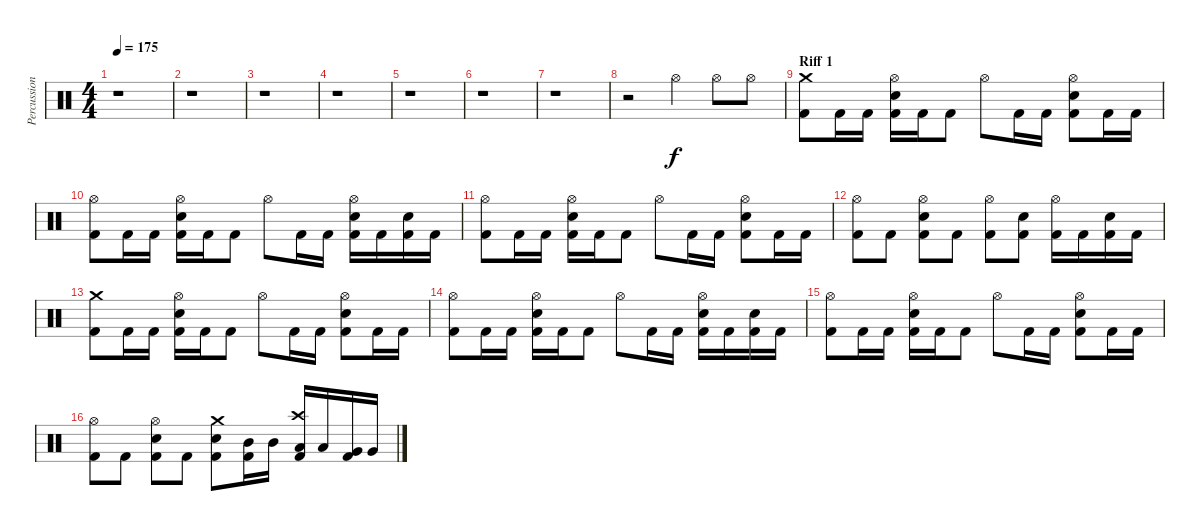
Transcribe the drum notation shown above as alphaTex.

\track ("Percussion" "Percussion") {instrument percussion}
\staff {score}
\articulation defaults
\ts (4 4)
\tempo 175
\clef neutral
\ks c
r.1{dy f} |
r.1 |
r.1 |
r.1 |
r.1 |
r.1 |
r.1 |
r.2 "Hi-Hat (open)".4 "Hi-Hat (open)".8 "Hi-Hat (open)".8 |
\section ("" "Riff 1")
("Crash medium (hit)" "Kick (hit) 2").8 "Kick (hit) 2".16 "Kick (hit) 2".16 ("Kick (hit) 2" "Hi-Hat (open)" "Snare (hit) 2").16 "Kick (hit) 2".16 "Kick (hit) 2".8 "Hi-Hat (open)".8 "Kick (hit) 2".16 "Kick (hit) 2".16 ("Kick (hit) 2" "Hi-Hat (open)" "Snare (hit) 2").8 "Kick (hit) 2".16 "Kick (hit) 2".16 |
("Hi-Hat (open)" "Kick (hit) 2").8 "Kick (hit) 2".16 "Kick (hit) 2".16 ("Kick (hit) 2" "Hi-Hat (open)" "Snare (hit) 2").16 "Kick (hit) 2".16 "Kick (hit) 2".8 "Hi-Hat (open)".8 "Kick (hit) 2".16 "Kick (hit) 2".16 ("Kick (hit) 2" "Hi-Hat (open)" "Snare (hit) 2").16 "Kick (hit) 2".16 ("Kick (hit) 2" "Snare (hit) 2").16 "Kick (hit) 2".16 |
("Hi-Hat (open)" "Kick (hit) 2").8 "Kick (hit) 2".16 "Kick (hit) 2".16 ("Kick (hit) 2" "Hi-Hat (open)" "Snare (hit) 2").16 "Kick (hit) 2".16 "Kick (hit) 2".8 "Hi-Hat (open)".8 "Kick (hit) 2".16 "Kick (hit) 2".16 ("Kick (hit) 2" "Hi-Hat (open)" "Snare (hit) 2").8 "Kick (hit) 2".16 "Kick (hit) 2".16 |
("Hi-Hat (open)" "Kick (hit) 2").8 "Kick (hit) 2".8 ("Kick (hit) 2" "Hi-Hat (open)" "Snare (hit) 2").8 "Kick (hit) 2".8 ("Hi-Hat (open)" "Kick (hit) 2").8 ("Kick (hit) 2" "Snare (hit) 2").8 ("Hi-Hat (open)" "Kick (hit) 2").16 "Kick (hit) 2".16 ("Kick (hit) 2" "Snare (hit) 2").16 "Kick (hit) 2".16 |
("Crash medium (hit)" "Kick (hit) 2").8 "Kick (hit) 2".16 "Kick (hit) 2".16 ("Kick (hit) 2" "Hi-Hat (open)" "Snare (hit) 2").16 "Kick (hit) 2".16 "Kick (hit) 2".8 "Hi-Hat (open)".8 "Kick (hit) 2".16 "Kick (hit) 2".16 ("Kick (hit) 2" "Hi-Hat (open)" "Snare (hit) 2").8 "Kick (hit) 2".16 "Kick (hit) 2".16 |
("Hi-Hat (open)" "Kick (hit) 2").8 "Kick (hit) 2".16 "Kick (hit) 2".16 ("Kick (hit) 2" "Hi-Hat (open)" "Snare (hit) 2").16 "Kick (hit) 2".16 "Kick (hit) 2".8 "Hi-Hat (open)".8 "Kick (hit) 2".16 "Kick (hit) 2".16 ("Kick (hit) 2" "Hi-Hat (open)" "Snare (hit) 2").16 "Kick (hit) 2".16 ("Kick (hit) 2" "Snare (hit) 2").16 "Kick (hit) 2".16 |
("Hi-Hat (open)" "Kick (hit) 2").8 "Kick (hit) 2".16 "Kick (hit) 2".16 ("Kick (hit) 2" "Hi-Hat (open)" "Snare (hit) 2").16 "Kick (hit) 2".16 "Kick (hit) 2".8 "Hi-Hat (open)".8 "Kick (hit) 2".16 "Kick (hit) 2".16 ("Kick (hit) 2" "Hi-Hat (open)" "Snare (hit) 2").8 "Kick (hit) 2".16 "Kick (hit) 2".16 |
("Hi-Hat (open)" "Kick (hit) 2").8 "Kick (hit) 2".8 ("Kick (hit) 2" "Hi-Hat (open)" "Snare (hit) 2").8 "Kick (hit) 2".8 ("Kick (hit) 2" "Crash medium (hit)" "Snare (hit) 2").8 ("Kick (hit) 2" "Mid Tom (hit)").16 "Mid Tom (hit)".16 ("Kick (hit) 2" "Crash high (hit)" "Low Tom (hit)").16 "Low Tom (hit)".16 ("Kick (hit) 2" "Very Low Tom (hit)").16 "Very Low Tom (hit)".16
